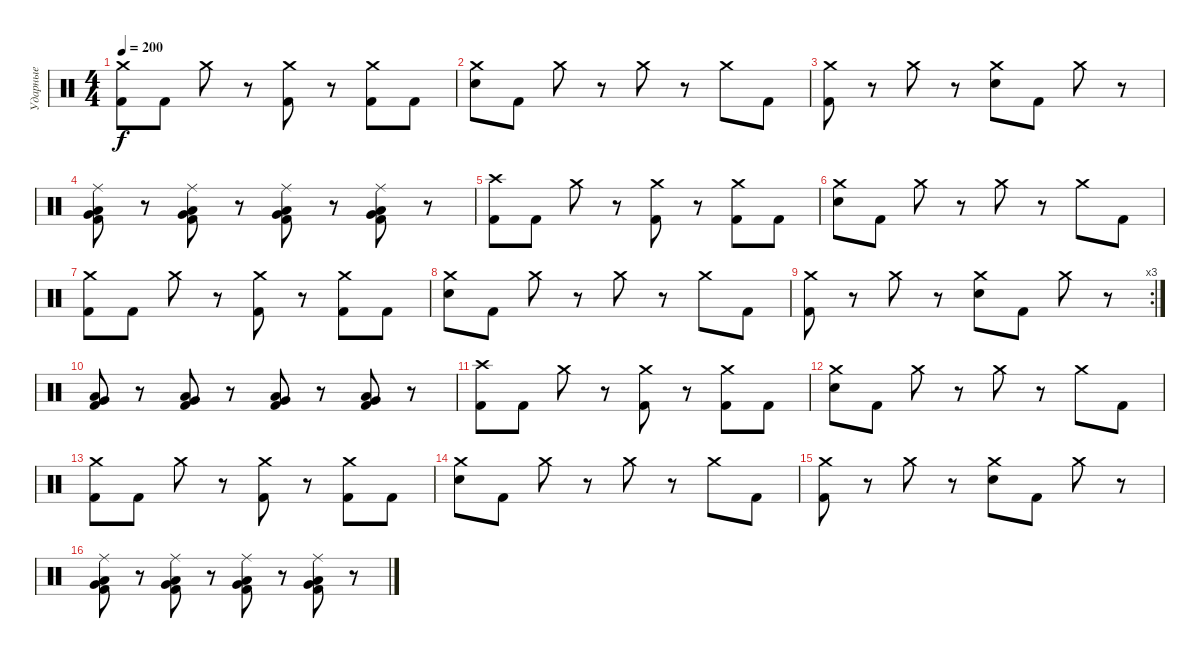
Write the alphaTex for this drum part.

\track ("Ударные" "Ударные") {instrument percussion}
\staff {score}
\articulation defaults
\ts (4 4)
\tempo 200
\clef neutral
\ks c
("Crash medium (hit)" "Kick (hit) 2").8{dy f} "Kick (hit) 2".8 "Crash medium (hit)".8 r.8 ("Crash medium (hit)" "Kick (hit) 2").8 r.8 ("Crash medium (hit)" "Kick (hit) 2").8 "Kick (hit) 2".8 |
("Crash medium (hit)" "Electric Snare (hit)").8 "Kick (hit) 2".8 "Crash medium (hit)".8 r.8 "Crash medium (hit)".8 r.8 "Crash medium (hit)".8 "Kick (hit) 2".8 |
("Crash medium (hit)" "Kick (hit) 2").8 r.8 "Crash medium (hit)".8 r.8 ("Crash medium (hit)" "Electric Snare (hit)").8 "Kick (hit) 2".8 "Crash medium (hit)".8 r.8 |
("Low Floor Tom (hit)" "Very Low Tom (hit)" "Kick (hit) 2" "Ride (middle)").8 r.8 ("Low Floor Tom (hit)" "Very Low Tom (hit)" "Kick (hit) 2" "Ride (middle)").8 r.8 ("Low Floor Tom (hit)" "Very Low Tom (hit)" "Kick (hit) 2" "Ride (middle)").8 r.8 ("Low Floor Tom (hit)" "Very Low Tom (hit)" "Kick (hit) 2" "Ride (middle)").8 r.8 |
("Crash high (hit)" "Kick (hit) 2").8 "Kick (hit) 2".8 "Crash medium (hit)".8 r.8 ("Crash medium (hit)" "Kick (hit) 2").8 r.8 ("Crash medium (hit)" "Kick (hit) 2").8 "Kick (hit) 2".8 |
("Crash medium (hit)" "Electric Snare (hit)").8 "Kick (hit) 2".8 "Crash medium (hit)".8 r.8 "Crash medium (hit)".8 r.8 "Crash medium (hit)".8 "Kick (hit) 2".8 |
("Crash medium (hit)" "Kick (hit) 2").8 "Kick (hit) 2".8 "Crash medium (hit)".8 r.8 ("Crash medium (hit)" "Kick (hit) 2").8 r.8 ("Crash medium (hit)" "Kick (hit) 2").8 "Kick (hit) 2".8 |
("Crash medium (hit)" "Electric Snare (hit)").8 "Kick (hit) 2".8 "Crash medium (hit)".8 r.8 "Crash medium (hit)".8 r.8 "Crash medium (hit)".8 "Kick (hit) 2".8 |
\rc 3
("Crash medium (hit)" "Kick (hit) 2").8 r.8 "Crash medium (hit)".8 r.8 ("Crash medium (hit)" "Electric Snare (hit)").8 "Kick (hit) 2".8 "Crash medium (hit)".8 r.8 |
("Low Floor Tom (hit)" "Very Low Tom (hit)" "Kick (hit) 2").8 r.8 ("Low Floor Tom (hit)" "Very Low Tom (hit)" "Kick (hit) 2").8 r.8 ("Low Floor Tom (hit)" "Very Low Tom (hit)" "Kick (hit) 2").8 r.8 ("Low Floor Tom (hit)" "Very Low Tom (hit)" "Kick (hit) 2").8 r.8 |
("Crash high (hit)" "Kick (hit) 2").8 "Kick (hit) 2".8 "Crash medium (hit)".8 r.8 ("Crash medium (hit)" "Kick (hit) 2").8 r.8 ("Crash medium (hit)" "Kick (hit) 2").8 "Kick (hit) 2".8 |
("Crash medium (hit)" "Electric Snare (hit)").8 "Kick (hit) 2".8 "Crash medium (hit)".8 r.8 "Crash medium (hit)".8 r.8 "Crash medium (hit)".8 "Kick (hit) 2".8 |
("Crash medium (hit)" "Kick (hit) 2").8 "Kick (hit) 2".8 "Crash medium (hit)".8 r.8 ("Crash medium (hit)" "Kick (hit) 2").8 r.8 ("Crash medium (hit)" "Kick (hit) 2").8 "Kick (hit) 2".8 |
("Crash medium (hit)" "Electric Snare (hit)").8 "Kick (hit) 2".8 "Crash medium (hit)".8 r.8 "Crash medium (hit)".8 r.8 "Crash medium (hit)".8 "Kick (hit) 2".8 |
("Crash medium (hit)" "Kick (hit) 2").8 r.8 "Crash medium (hit)".8 r.8 ("Crash medium (hit)" "Electric Snare (hit)").8 "Kick (hit) 2".8 "Crash medium (hit)".8 r.8 |
("Low Floor Tom (hit)" "Very Low Tom (hit)" "Kick (hit) 2" "Ride (middle)").8 r.8 ("Low Floor Tom (hit)" "Very Low Tom (hit)" "Kick (hit) 2" "Ride (middle)").8 r.8 ("Low Floor Tom (hit)" "Very Low Tom (hit)" "Kick (hit) 2" "Ride (middle)").8 r.8 ("Low Floor Tom (hit)" "Very Low Tom (hit)" "Kick (hit) 2" "Ride (middle)").8 r.8
